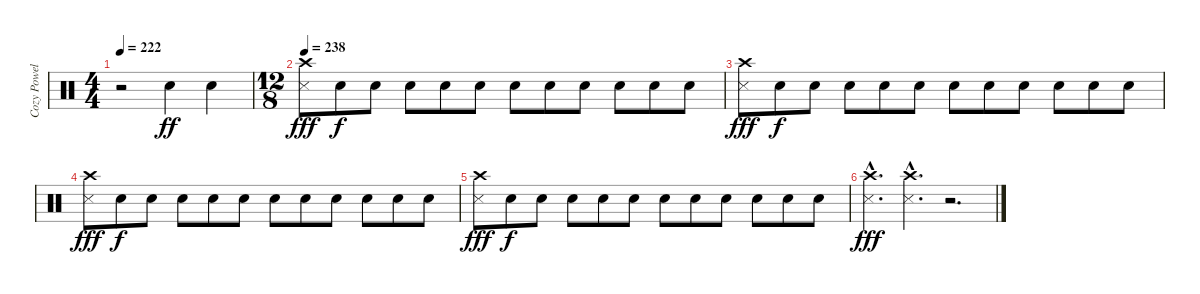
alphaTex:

\track ("Cozy Powell" "Cozy Powel") {instrument percussion}
\staff {score}
\articulation defaults
\ts (4 4)
\tempo 222
\clef neutral
\ks c
r.2{dy f} "Electric Snare (hit)".4{dy ff} "Electric Snare (hit)".4 |
\ts (12 8)
\tempo 238
("Metronome (hit)" "Crash high (hit)").8{dy fff} "Electric Snare (hit)".8{dy f} "Electric Snare (hit)".8 "Electric Snare (hit)".8 "Electric Snare (hit)".8 "Electric Snare (hit)".8 "Electric Snare (hit)".8 "Electric Snare (hit)".8 "Electric Snare (hit)".8 "Electric Snare (hit)".8 "Electric Snare (hit)".8 "Electric Snare (hit)".8 |
("Metronome (hit)" "Crash high (hit)").8{dy fff} "Electric Snare (hit)".8{dy f} "Electric Snare (hit)".8 "Electric Snare (hit)".8 "Electric Snare (hit)".8 "Electric Snare (hit)".8 "Electric Snare (hit)".8 "Electric Snare (hit)".8 "Electric Snare (hit)".8 "Electric Snare (hit)".8 "Electric Snare (hit)".8 "Electric Snare (hit)".8 |
("Metronome (hit)" "Crash high (hit)").8{dy fff} "Electric Snare (hit)".8{dy f} "Electric Snare (hit)".8 "Electric Snare (hit)".8 "Electric Snare (hit)".8 "Electric Snare (hit)".8 "Electric Snare (hit)".8 "Electric Snare (hit)".8 "Electric Snare (hit)".8 "Electric Snare (hit)".8 "Electric Snare (hit)".8 "Electric Snare (hit)".8 |
("Metronome (hit)" "Crash high (hit)").8{dy fff} "Electric Snare (hit)".8{dy f} "Electric Snare (hit)".8 "Electric Snare (hit)".8 "Electric Snare (hit)".8 "Electric Snare (hit)".8 "Electric Snare (hit)".8 "Electric Snare (hit)".8 "Electric Snare (hit)".8 "Electric Snare (hit)".8 "Electric Snare (hit)".8 "Electric Snare (hit)".8 |
("Metronome (hit)"{hac} "Crash high (hit)"{hac}).4{d dy fff} ("Metronome (hit)"{hac} "Crash high (hit)"{hac}).4{d} r.2{d}
